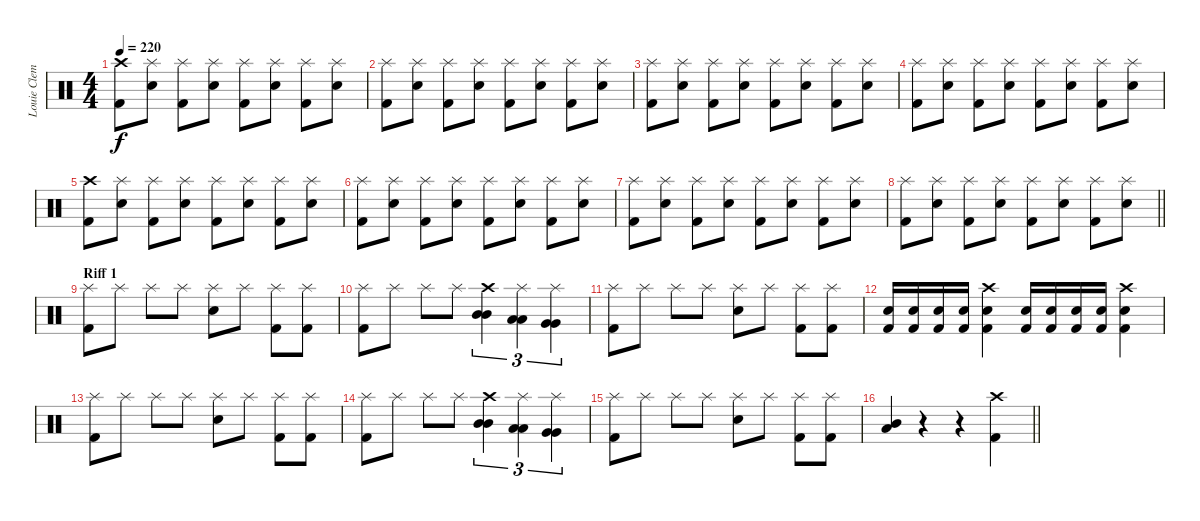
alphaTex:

\track ("Louie Clemente (Drums)" "Louie Clem") {instrument percussion}
\staff {score}
\articulation defaults
\ts (4 4)
\tempo 220
\clef neutral
\ks c
("Crash high (hit)" "Kick (hit) 2").8{dy f} ("Splash (hit)" "Electric Snare (hit)").8 ("Splash (hit)" "Kick (hit) 2").8 ("Splash (hit)" "Electric Snare (hit)").8 ("Splash (hit)" "Kick (hit) 2").8 ("Splash (hit)" "Electric Snare (hit)").8 ("Splash (hit)" "Kick (hit) 2").8 ("Splash (hit)" "Electric Snare (hit)").8 |
("Splash (hit)" "Kick (hit) 2").8 ("Splash (hit)" "Electric Snare (hit)").8 ("Splash (hit)" "Kick (hit) 2").8 ("Splash (hit)" "Electric Snare (hit)").8 ("Splash (hit)" "Kick (hit) 2").8 ("Splash (hit)" "Electric Snare (hit)").8 ("Splash (hit)" "Kick (hit) 2").8 ("Splash (hit)" "Electric Snare (hit)").8 |
("Splash (hit)" "Kick (hit) 2").8 ("Splash (hit)" "Electric Snare (hit)").8 ("Splash (hit)" "Kick (hit) 2").8 ("Splash (hit)" "Electric Snare (hit)").8 ("Splash (hit)" "Kick (hit) 2").8 ("Splash (hit)" "Electric Snare (hit)").8 ("Splash (hit)" "Kick (hit) 2").8 ("Splash (hit)" "Electric Snare (hit)").8 |
("Splash (hit)" "Kick (hit) 2").8 ("Splash (hit)" "Electric Snare (hit)").8 ("Splash (hit)" "Kick (hit) 2").8 ("Splash (hit)" "Electric Snare (hit)").8 ("Splash (hit)" "Kick (hit) 2").8 ("Splash (hit)" "Electric Snare (hit)").8 ("Splash (hit)" "Kick (hit) 2").8 ("Splash (hit)" "Electric Snare (hit)").8 |
("Crash high (hit)" "Kick (hit) 2").8 ("Splash (hit)" "Electric Snare (hit)").8 ("Splash (hit)" "Kick (hit) 2").8 ("Splash (hit)" "Electric Snare (hit)").8 ("Splash (hit)" "Kick (hit) 2").8 ("Splash (hit)" "Electric Snare (hit)").8 ("Splash (hit)" "Kick (hit) 2").8 ("Splash (hit)" "Electric Snare (hit)").8 |
("Splash (hit)" "Kick (hit) 2").8 ("Splash (hit)" "Electric Snare (hit)").8 ("Splash (hit)" "Kick (hit) 2").8 ("Splash (hit)" "Electric Snare (hit)").8 ("Splash (hit)" "Kick (hit) 2").8 ("Splash (hit)" "Electric Snare (hit)").8 ("Splash (hit)" "Kick (hit) 2").8 ("Splash (hit)" "Electric Snare (hit)").8 |
("Splash (hit)" "Kick (hit) 2").8 ("Splash (hit)" "Electric Snare (hit)").8 ("Splash (hit)" "Kick (hit) 2").8 ("Splash (hit)" "Electric Snare (hit)").8 ("Splash (hit)" "Kick (hit) 2").8 ("Splash (hit)" "Electric Snare (hit)").8 ("Splash (hit)" "Kick (hit) 2").8 ("Splash (hit)" "Electric Snare (hit)").8 |
\barLineRight lightlight
("Splash (hit)" "Kick (hit) 2").8 ("Splash (hit)" "Electric Snare (hit)").8 ("Splash (hit)" "Kick (hit) 2").8 ("Splash (hit)" "Electric Snare (hit)").8 ("Splash (hit)" "Kick (hit) 2").8 ("Splash (hit)" "Electric Snare (hit)").8 ("Splash (hit)" "Kick (hit) 2").8 ("Splash (hit)" "Electric Snare (hit)").8 |
\section ("" "Riff 1")
("Splash (hit)" "Kick (hit) 2").8 "Splash (hit)".8 "Splash (hit)".8 "Splash (hit)".8 ("Splash (hit)" "Electric Snare (hit)").8 "Splash (hit)".8 ("Splash (hit)" "Kick (hit) 2").8 ("Splash (hit)" "Kick (hit) 2").8 |
("Splash (hit)" "Kick (hit) 2").8 "Splash (hit)".8 "Splash (hit)".8 "Splash (hit)".8 ("Crash high (hit)" "Mid Tom (hit)" "Mid Tom (hit)").4{tu (3 2)} ("Splash (hit)" "Low Tom (hit)" "Low Tom (hit)").4{tu (3 2)} ("Splash (hit)" "Very Low Tom (hit)" "Very Low Tom (hit)").4{tu (3 2)} |
("Splash (hit)" "Kick (hit) 2").8 "Splash (hit)".8 "Splash (hit)".8 "Splash (hit)".8 ("Splash (hit)" "Electric Snare (hit)").8 "Splash (hit)".8 ("Splash (hit)" "Kick (hit) 2").8 ("Splash (hit)" "Kick (hit) 2").8 |
("Electric Snare (hit)" "Kick (hit) 2").16 ("Electric Snare (hit)" "Kick (hit) 2").16 ("Electric Snare (hit)" "Kick (hit) 2").16 ("Electric Snare (hit)" "Kick (hit) 2").16 ("Crash high (hit)" "Electric Snare (hit)" "Kick (hit) 2").4 ("Electric Snare (hit)" "Kick (hit) 2").16 ("Electric Snare (hit)" "Kick (hit) 2").16 ("Electric Snare (hit)" "Kick (hit) 2").16 ("Electric Snare (hit)" "Kick (hit) 2").16 ("Crash high (hit)" "Electric Snare (hit)" "Kick (hit) 2").4 |
("Splash (hit)" "Kick (hit) 2").8 "Splash (hit)".8 "Splash (hit)".8 "Splash (hit)".8 ("Splash (hit)" "Electric Snare (hit)").8 "Splash (hit)".8 ("Splash (hit)" "Kick (hit) 2").8 ("Splash (hit)" "Kick (hit) 2").8 |
("Splash (hit)" "Kick (hit) 2").8 "Splash (hit)".8 "Splash (hit)".8 "Splash (hit)".8 ("Crash high (hit)" "Mid Tom (hit)" "Mid Tom (hit)").4{tu (3 2)} ("Splash (hit)" "Low Tom (hit)" "Low Tom (hit)").4{tu (3 2)} ("Splash (hit)" "Very Low Tom (hit)" "Very Low Tom (hit)").4{tu (3 2)} |
("Splash (hit)" "Kick (hit) 2").8 "Splash (hit)".8 "Splash (hit)".8 "Splash (hit)".8 ("Splash (hit)" "Electric Snare (hit)").8 "Splash (hit)".8 ("Splash (hit)" "Kick (hit) 2").8 ("Splash (hit)" "Kick (hit) 2").8 |
\barLineRight lightlight
("Mid Tom (hit)" "Low Tom (hit)").4 r.4 r.4 ("Crash high (hit)" "Kick (hit) 2").4
